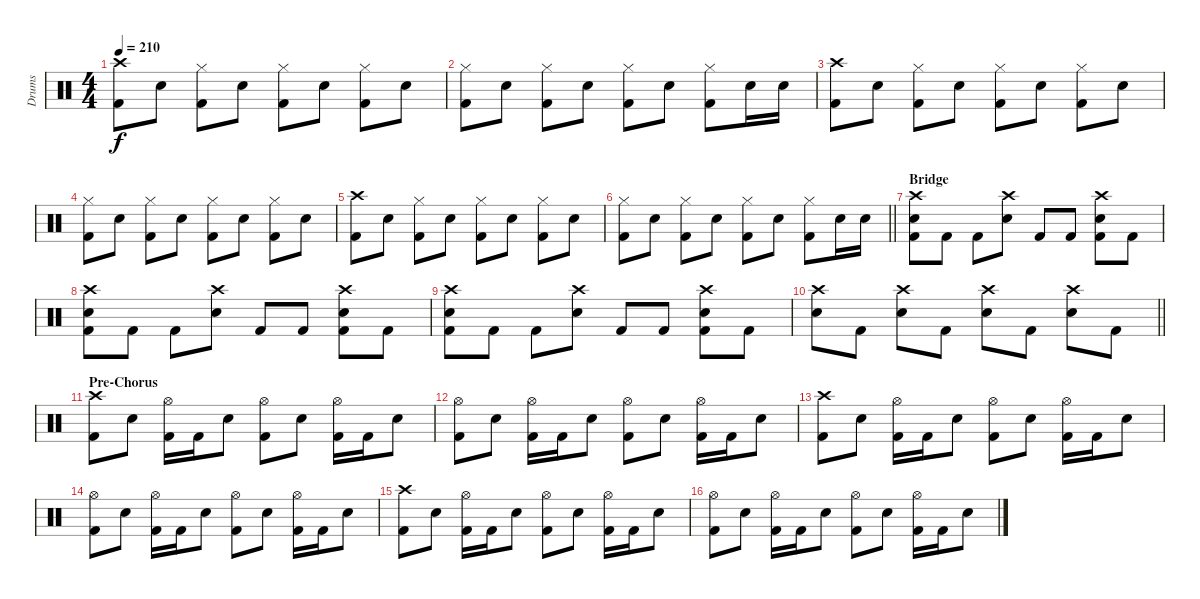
\track ("Drums" "Drums") {instrument percussion}
\staff {score}
\articulation defaults
\ts (4 4)
\tempo 210
\clef neutral
\ks c
("Crash high (hit)" "Kick (hit) 2").8{dy f} "Snare (hit) 2".8 ("Hi-Hat (closed)" "Kick (hit) 2").8 "Snare (hit) 2".8 ("Hi-Hat (closed)" "Kick (hit) 2").8 "Snare (hit) 2".8 ("Hi-Hat (closed)" "Kick (hit) 2").8 "Snare (hit) 2".8 |
("Hi-Hat (closed)" "Kick (hit) 2").8 "Snare (hit) 2".8 ("Hi-Hat (closed)" "Kick (hit) 2").8 "Snare (hit) 2".8 ("Hi-Hat (closed)" "Kick (hit) 2").8 "Snare (hit) 2".8 ("Hi-Hat (closed)" "Kick (hit) 2").8 "Snare (hit) 2".16 "Snare (hit) 2".16 |
("Crash high (hit)" "Kick (hit) 2").8 "Snare (hit) 2".8 ("Hi-Hat (closed)" "Kick (hit) 2").8 "Snare (hit) 2".8 ("Hi-Hat (closed)" "Kick (hit) 2").8 "Snare (hit) 2".8 ("Hi-Hat (closed)" "Kick (hit) 2").8 "Snare (hit) 2".8 |
("Hi-Hat (closed)" "Kick (hit) 2").8 "Snare (hit) 2".8 ("Hi-Hat (closed)" "Kick (hit) 2").8 "Snare (hit) 2".8 ("Hi-Hat (closed)" "Kick (hit) 2").8 "Snare (hit) 2".8 ("Hi-Hat (closed)" "Kick (hit) 2").8 "Snare (hit) 2".8 |
("Crash high (hit)" "Kick (hit) 2").8 "Snare (hit) 2".8 ("Hi-Hat (closed)" "Kick (hit) 2").8 "Snare (hit) 2".8 ("Hi-Hat (closed)" "Kick (hit) 2").8 "Snare (hit) 2".8 ("Hi-Hat (closed)" "Kick (hit) 2").8 "Snare (hit) 2".8 |
\barLineRight lightlight
("Hi-Hat (closed)" "Kick (hit) 2").8 "Snare (hit) 2".8 ("Hi-Hat (closed)" "Kick (hit) 2").8 "Snare (hit) 2".8 ("Hi-Hat (closed)" "Kick (hit) 2").8 "Snare (hit) 2".8 ("Hi-Hat (closed)" "Kick (hit) 2").8 "Snare (hit) 2".16 "Snare (hit) 2".16 |
\section ("" "Bridge")
("Crash high (hit)" "Snare (hit) 2" "Kick (hit) 2").8 "Kick (hit) 2".8 "Kick (hit) 2".8 ("Crash high (hit)" "Snare (hit) 2").8 "Kick (hit) 2".8 "Kick (hit) 2".8 ("Crash high (hit)" "Snare (hit) 2" "Kick (hit) 2").8 "Kick (hit) 2".8 |
("Crash high (hit)" "Snare (hit) 2" "Kick (hit) 2").8 "Kick (hit) 2".8 "Kick (hit) 2".8 ("Crash high (hit)" "Snare (hit) 2").8 "Kick (hit) 2".8 "Kick (hit) 2".8 ("Crash high (hit)" "Snare (hit) 2" "Kick (hit) 2").8 "Kick (hit) 2".8 |
("Crash high (hit)" "Snare (hit) 2" "Kick (hit) 2").8 "Kick (hit) 2".8 "Kick (hit) 2".8 ("Crash high (hit)" "Snare (hit) 2").8 "Kick (hit) 2".8 "Kick (hit) 2".8 ("Crash high (hit)" "Snare (hit) 2" "Kick (hit) 2").8 "Kick (hit) 2".8 |
\barLineRight lightlight
("Crash high (hit)" "Snare (hit) 2").8 "Kick (hit) 2".8 ("Crash high (hit)" "Snare (hit) 2").8 "Kick (hit) 2".8 ("Crash high (hit)" "Snare (hit) 2").8 "Kick (hit) 2".8 ("Crash high (hit)" "Snare (hit) 2").8 "Kick (hit) 2".8 |
\section ("" "Pre-Chorus")
("Crash high (hit)" "Kick (hit) 2").8 "Snare (hit) 2".8 ("Hi-Hat (open)" "Kick (hit) 2").16 "Kick (hit) 2".16 "Snare (hit) 2".8 ("Hi-Hat (open)" "Kick (hit) 2").8 "Snare (hit) 2".8 ("Hi-Hat (open)" "Kick (hit) 2").16 "Kick (hit) 2".16 "Snare (hit) 2".8 |
("Hi-Hat (open)" "Kick (hit) 2").8 "Snare (hit) 2".8 ("Hi-Hat (open)" "Kick (hit) 2").16 "Kick (hit) 2".16 "Snare (hit) 2".8 ("Hi-Hat (open)" "Kick (hit) 2").8 "Snare (hit) 2".8 ("Hi-Hat (open)" "Kick (hit) 2").16 "Kick (hit) 2".16 "Snare (hit) 2".8 |
("Crash high (hit)" "Kick (hit) 2").8 "Snare (hit) 2".8 ("Hi-Hat (open)" "Kick (hit) 2").16 "Kick (hit) 2".16 "Snare (hit) 2".8 ("Hi-Hat (open)" "Kick (hit) 2").8 "Snare (hit) 2".8 ("Hi-Hat (open)" "Kick (hit) 2").16 "Kick (hit) 2".16 "Snare (hit) 2".8 |
("Hi-Hat (open)" "Kick (hit) 2").8 "Snare (hit) 2".8 ("Hi-Hat (open)" "Kick (hit) 2").16 "Kick (hit) 2".16 "Snare (hit) 2".8 ("Hi-Hat (open)" "Kick (hit) 2").8 "Snare (hit) 2".8 ("Hi-Hat (open)" "Kick (hit) 2").16 "Kick (hit) 2".16 "Snare (hit) 2".8 |
("Crash high (hit)" "Kick (hit) 2").8 "Snare (hit) 2".8 ("Hi-Hat (open)" "Kick (hit) 2").16 "Kick (hit) 2".16 "Snare (hit) 2".8 ("Hi-Hat (open)" "Kick (hit) 2").8 "Snare (hit) 2".8 ("Hi-Hat (open)" "Kick (hit) 2").16 "Kick (hit) 2".16 "Snare (hit) 2".8 |
("Hi-Hat (open)" "Kick (hit) 2").8 "Snare (hit) 2".8 ("Hi-Hat (open)" "Kick (hit) 2").16 "Kick (hit) 2".16 "Snare (hit) 2".8 ("Hi-Hat (open)" "Kick (hit) 2").8 "Snare (hit) 2".8 ("Hi-Hat (open)" "Kick (hit) 2").16 "Kick (hit) 2".16 "Snare (hit) 2".8
